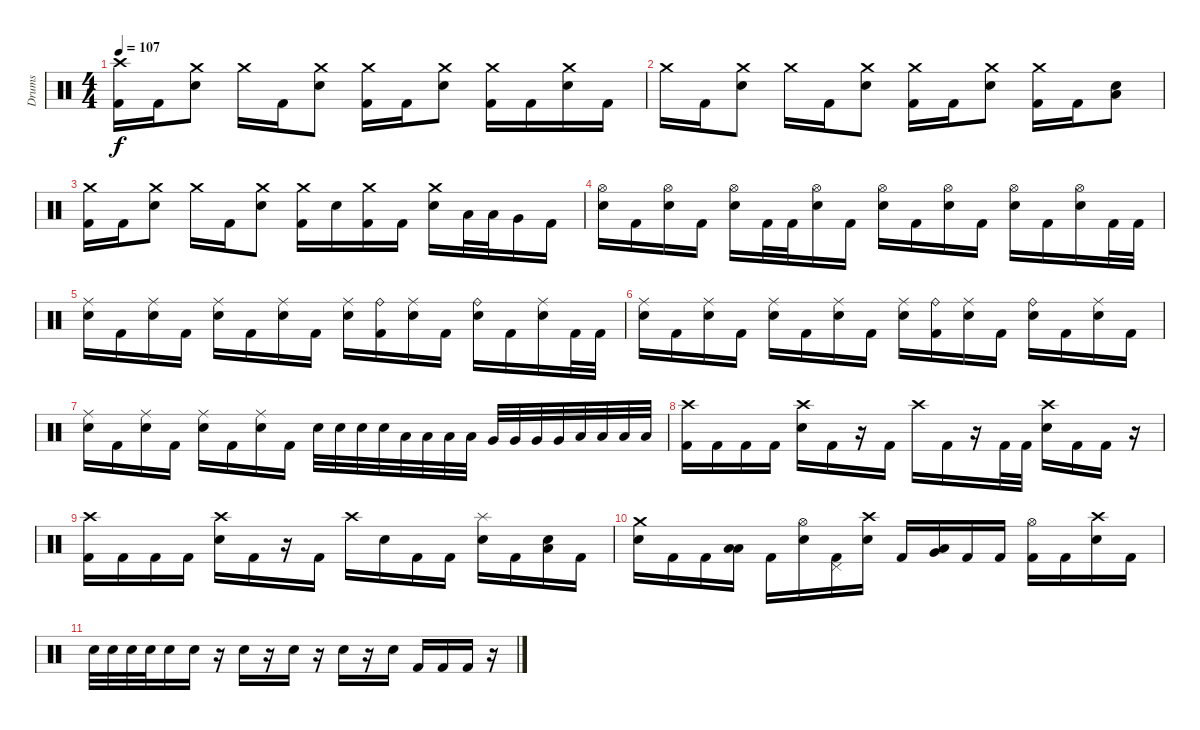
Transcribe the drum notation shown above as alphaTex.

\track ("Drums" "Drums") {instrument percussion}
\staff {score}
\articulation defaults
\ts (4 4)
\tempo 107
\clef neutral
\ks c
("Crash high (hit)" "Kick (hit) 2").16{dy f} "Kick (hit) 2".16 ("Crash medium (hit)" "Snare (hit) 2").8 "Crash medium (hit)".16 "Kick (hit) 2".16 ("Crash medium (hit)" "Snare (hit) 2").8 ("Crash medium (hit)" "Kick (hit) 2").16 "Kick (hit) 2".16 ("Crash medium (hit)" "Snare (hit) 2").8 ("Crash medium (hit)" "Kick (hit) 2").16 "Kick (hit) 2".16 ("Crash medium (hit)" "Snare (hit) 2").16 "Kick (hit) 2".16 |
"Crash medium (hit)".16 "Kick (hit) 2".16 ("Crash medium (hit)" "Snare (hit) 2").8 "Crash medium (hit)".16 "Kick (hit) 2".16 ("Crash medium (hit)" "Snare (hit) 2").8 ("Crash medium (hit)" "Kick (hit) 2").16 "Kick (hit) 2".16 ("Crash medium (hit)" "Snare (hit) 2").8 ("Crash medium (hit)" "Kick (hit) 2").16 "Kick (hit) 2".16 ("Low Floor Tom (hit)" "Snare (hit) 2").8 |
("Crash medium (hit)" "Kick (hit) 2").16 "Kick (hit) 2".16 ("Crash medium (hit)" "Snare (hit) 2").8 "Crash medium (hit)".16 "Kick (hit) 2".16 ("Crash medium (hit)" "Snare (hit) 2").8 ("Crash medium (hit)" "Kick (hit) 2").16 "Snare (hit) 2".16 ("Crash medium (hit)" "Kick (hit) 2").16 "Kick (hit) 2".16 ("Crash medium (hit)" "Snare (hit) 2").16 "Low Tom (hit)".32 "Low Tom (hit)".32 "Very Low Tom (hit)".16 "Kick (hit) 2".16 |
("Hi-Hat (open)" "Snare (hit) 2").16 "Kick (hit) 2".16 ("Hi-Hat (open)" "Snare (hit) 2").16 "Kick (hit) 2".16 ("Hi-Hat (open)" "Snare (hit) 2").16 "Kick (hit) 2".32 "Kick (hit) 2".32 ("Hi-Hat (open)" "Snare (hit) 2").16 "Kick (hit) 2".16 ("Hi-Hat (open)" "Snare (hit) 2").16 "Kick (hit) 2".16 ("Hi-Hat (open)" "Snare (hit) 2").16 "Kick (hit) 2".16 ("Hi-Hat (open)" "Snare (hit) 2").16 "Kick (hit) 2".16 ("Hi-Hat (open)" "Snare (hit) 2").16 "Kick (hit) 2".32 "Kick (hit) 2".32 |
("Ride (middle)" "Snare (hit) 2").16 "Kick (hit) 2".16 ("Ride (middle)" "Snare (hit) 2").16 "Kick (hit) 2".16 ("Ride (middle)" "Snare (hit) 2").16 "Kick (hit) 2".16 ("Ride (middle)" "Snare (hit) 2").16 "Kick (hit) 2".16 ("Ride (middle)" "Snare (hit) 2").16 ("Ride (bell)" "Kick (hit) 2").16 ("Ride (middle)" "Snare (hit) 2").16 "Kick (hit) 2".16 ("Ride (bell)" "Snare (hit) 2").16 "Kick (hit) 2".16 ("Ride (middle)" "Snare (hit) 2").16 "Kick (hit) 2".32 "Kick (hit) 2".32 |
("Ride (middle)" "Snare (hit) 2").16 "Kick (hit) 2".16 ("Ride (middle)" "Snare (hit) 2").16 "Kick (hit) 2".16 ("Ride (middle)" "Snare (hit) 2").16 "Kick (hit) 2".16 ("Ride (middle)" "Snare (hit) 2").16 "Kick (hit) 2".16 ("Ride (middle)" "Snare (hit) 2").16 ("Ride (bell)" "Kick (hit) 2").16 ("Ride (middle)" "Snare (hit) 2").16 "Kick (hit) 2".16 ("Ride (bell)" "Snare (hit) 2").16 "Kick (hit) 2".16 ("Ride (middle)" "Snare (hit) 2").16 "Kick (hit) 2".16 |
("Ride (middle)" "Snare (hit) 2").16 "Kick (hit) 2".16 ("Ride (middle)" "Snare (hit) 2").16 "Kick (hit) 2".16 ("Ride (middle)" "Snare (hit) 2").16 "Kick (hit) 2".16 ("Ride (middle)" "Snare (hit) 2").16 "Kick (hit) 2".16 "Snare (hit) 2".32 "Snare (hit) 2".32 "Snare (hit) 2".32 "Snare (hit) 2".32 "Low Tom (hit)".32 "Low Tom (hit)".32 "Low Tom (hit)".32 "Low Tom (hit)".32 "Very Low Tom (hit)".32 "Very Low Tom (hit)".32 "Very Low Tom (hit)".32 "Very Low Tom (hit)".32 "Low Floor Tom (hit)".32 "Low Floor Tom (hit)".32 "Low Floor Tom (hit)".32 "Low Floor Tom (hit)".32 |
("Crash high (hit)" "Kick (hit) 2").16 "Kick (hit) 2".16 "Kick (hit) 2".16 "Kick (hit) 2".16 ("Crash high (hit)" "Snare (hit) 2").16 "Kick (hit) 2".16 r.16 "Kick (hit) 2".16 "Crash high (hit)".16 "Kick (hit) 2".16 r.16 "Kick (hit) 2".32 "Kick (hit) 2".32 ("Crash high (hit)" "Snare (hit) 2").16 "Kick (hit) 2".16 "Kick (hit) 2".16 r.16 |
("Crash high (hit)" "Kick (hit) 2").16 "Kick (hit) 2".16 "Kick (hit) 2".16 "Kick (hit) 2".16 ("Crash high (hit)" "Snare (hit) 2").16 "Kick (hit) 2".16 r.16 "Kick (hit) 2".16 "Crash high (hit)".16 "Snare (hit) 2".16 "Kick (hit) 2".16 "Kick (hit) 2".16 ("Splash (hit)" "Snare (hit) 2").16 "Kick (hit) 2".16 ("Low Floor Tom (hit)" "Snare (hit) 2").16 "Kick (hit) 2".16 |
("Crash medium (hit)" "Snare (hit) 2").16 "Kick (hit) 2".16 "Kick (hit) 2".16 ("Low Tom (hit)" "Low Floor Tom (hit)").16 "Kick (hit) 2".16 ("Hi-Hat (open)" "Snare (hit) 2").16 ("Pedal Hi-Hat (hit)" "Kick (hit) 2").16 ("Crash high (hit)" "Snare (hit) 2").16 "Kick (hit) 2".16 ("Very Low Tom (hit)" "Low Floor Tom (hit)").16 "Kick (hit) 2".16 "Kick (hit) 2".16 ("Hi-Hat (open)" "Kick (hit) 2").16 "Kick (hit) 2".16 ("Crash high (hit)" "Snare (hit) 2").16 "Kick (hit) 2".16 |
"Snare (hit) 2".32 "Snare (hit) 2".32 "Snare (hit) 2".32 "Snare (hit) 2".32 "Snare (hit) 2".16 "Snare (hit) 2".16 r.16 "Snare (hit) 2".16 r.16 "Snare (hit) 2".16 r.16 "Snare (hit) 2".16 r.16 "Snare (hit) 2".16 "Kick (hit) 2".16 "Kick (hit) 2".16 "Kick (hit) 2".16 r.16{volume 0}
